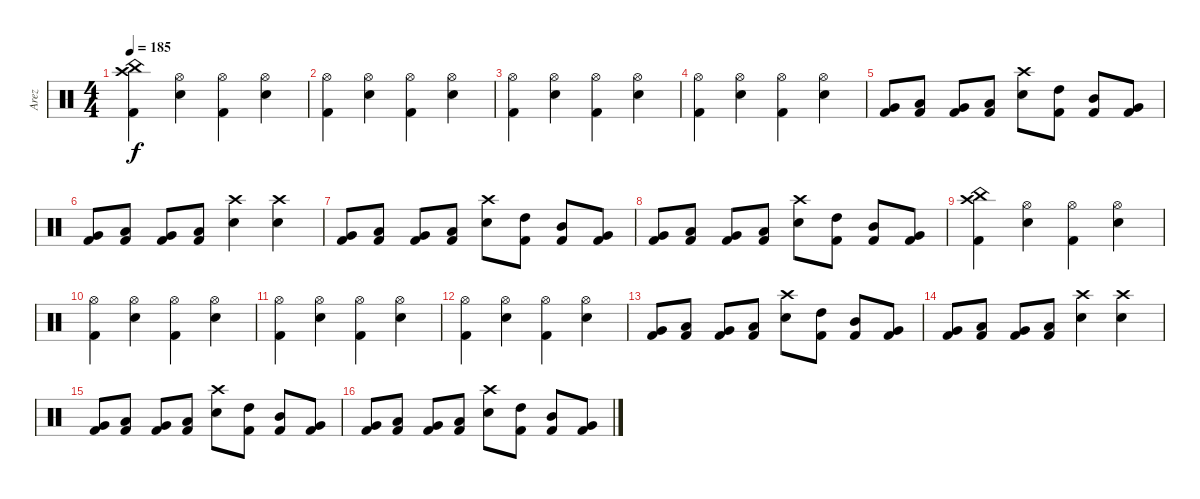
\track ("Arez" "Arez") {instrument percussion}
\staff {score}
\articulation defaults
\ts (4 4)
\tempo 185
\clef neutral
\ks c
("Crash high (hit)" "Kick (hit) 2" "China (hit)").4{dy f} ("Hi-Hat (open)" "Electric Snare (hit)").4 ("Kick (hit) 2" "Hi-Hat (open)").4 ("Hi-Hat (open)" "Electric Snare (hit)").4 |
("Kick (hit) 2" "Hi-Hat (open)").4 ("Hi-Hat (open)" "Electric Snare (hit)").4 ("Kick (hit) 2" "Hi-Hat (open)").4 ("Hi-Hat (open)" "Electric Snare (hit)").4 |
("Kick (hit) 2" "Hi-Hat (open)").4 ("Hi-Hat (open)" "Electric Snare (hit)").4 ("Kick (hit) 2" "Hi-Hat (open)").4 ("Hi-Hat (open)" "Electric Snare (hit)").4 |
("Kick (hit) 2" "Hi-Hat (open)").4 ("Hi-Hat (open)" "Electric Snare (hit)").4 ("Kick (hit) 2" "Hi-Hat (open)").4 ("Hi-Hat (open)" "Electric Snare (hit)").4 |
("Very Low Tom (hit)" "Kick (hit) 2").8 ("Low Floor Tom (hit)" "Kick (hit) 2").8 ("Very Low Tom (hit)" "Kick (hit) 2").8 ("Low Floor Tom (hit)" "Kick (hit) 2").8 ("Electric Snare (hit)" "Crash high (hit)").8 ("High Tom (hit)" "Kick (hit) 2").8 ("Mid Tom (hit)" "Kick (hit) 2").8 ("Very Low Tom (hit)" "Kick (hit) 2").8 |
("Very Low Tom (hit)" "Kick (hit) 2").8 ("Low Floor Tom (hit)" "Kick (hit) 2").8 ("Very Low Tom (hit)" "Kick (hit) 2").8 ("Low Floor Tom (hit)" "Kick (hit) 2").8 ("Electric Snare (hit)" "Crash high (hit)").4 ("Electric Snare (hit)" "Crash high (hit)").4 |
("Very Low Tom (hit)" "Kick (hit) 2").8 ("Low Floor Tom (hit)" "Kick (hit) 2").8 ("Very Low Tom (hit)" "Kick (hit) 2").8 ("Low Floor Tom (hit)" "Kick (hit) 2").8 ("Electric Snare (hit)" "Crash high (hit)").8 ("High Tom (hit)" "Kick (hit) 2").8 ("Mid Tom (hit)" "Kick (hit) 2").8 ("Very Low Tom (hit)" "Kick (hit) 2").8 |
("Very Low Tom (hit)" "Kick (hit) 2").8 ("Low Floor Tom (hit)" "Kick (hit) 2").8 ("Very Low Tom (hit)" "Kick (hit) 2").8 ("Low Floor Tom (hit)" "Kick (hit) 2").8 ("Electric Snare (hit)" "Crash high (hit)").8 ("High Tom (hit)" "Kick (hit) 2").8 ("Mid Tom (hit)" "Kick (hit) 2").8 ("Very Low Tom (hit)" "Kick (hit) 2").8 |
("Crash high (hit)" "Kick (hit) 2" "China (hit)").4 ("Hi-Hat (open)" "Electric Snare (hit)").4 ("Kick (hit) 2" "Hi-Hat (open)").4 ("Hi-Hat (open)" "Electric Snare (hit)").4 |
("Kick (hit) 2" "Hi-Hat (open)").4 ("Hi-Hat (open)" "Electric Snare (hit)").4 ("Kick (hit) 2" "Hi-Hat (open)").4 ("Hi-Hat (open)" "Electric Snare (hit)").4 |
("Kick (hit) 2" "Hi-Hat (open)").4 ("Hi-Hat (open)" "Electric Snare (hit)").4 ("Kick (hit) 2" "Hi-Hat (open)").4 ("Hi-Hat (open)" "Electric Snare (hit)").4 |
("Kick (hit) 2" "Hi-Hat (open)").4 ("Hi-Hat (open)" "Electric Snare (hit)").4 ("Kick (hit) 2" "Hi-Hat (open)").4 ("Hi-Hat (open)" "Electric Snare (hit)").4 |
("Very Low Tom (hit)" "Kick (hit) 2").8 ("Low Floor Tom (hit)" "Kick (hit) 2").8 ("Very Low Tom (hit)" "Kick (hit) 2").8 ("Low Floor Tom (hit)" "Kick (hit) 2").8 ("Electric Snare (hit)" "Crash high (hit)").8 ("High Tom (hit)" "Kick (hit) 2").8 ("Mid Tom (hit)" "Kick (hit) 2").8 ("Very Low Tom (hit)" "Kick (hit) 2").8 |
("Very Low Tom (hit)" "Kick (hit) 2").8 ("Low Floor Tom (hit)" "Kick (hit) 2").8 ("Very Low Tom (hit)" "Kick (hit) 2").8 ("Low Floor Tom (hit)" "Kick (hit) 2").8 ("Electric Snare (hit)" "Crash high (hit)").4 ("Electric Snare (hit)" "Crash high (hit)").4 |
("Very Low Tom (hit)" "Kick (hit) 2").8 ("Low Floor Tom (hit)" "Kick (hit) 2").8 ("Very Low Tom (hit)" "Kick (hit) 2").8 ("Low Floor Tom (hit)" "Kick (hit) 2").8 ("Electric Snare (hit)" "Crash high (hit)").8 ("High Tom (hit)" "Kick (hit) 2").8 ("Mid Tom (hit)" "Kick (hit) 2").8 ("Very Low Tom (hit)" "Kick (hit) 2").8 |
("Very Low Tom (hit)" "Kick (hit) 2").8 ("Low Floor Tom (hit)" "Kick (hit) 2").8 ("Very Low Tom (hit)" "Kick (hit) 2").8 ("Low Floor Tom (hit)" "Kick (hit) 2").8 ("Electric Snare (hit)" "Crash high (hit)").8 ("High Tom (hit)" "Kick (hit) 2").8 ("Mid Tom (hit)" "Kick (hit) 2").8 ("Very Low Tom (hit)" "Kick (hit) 2").8
